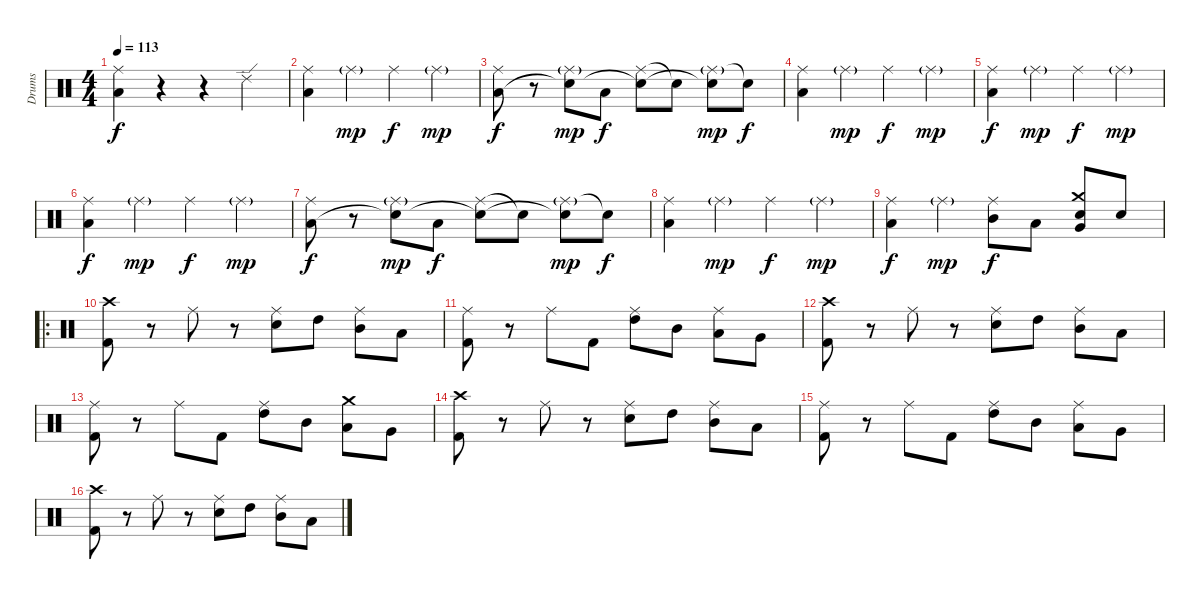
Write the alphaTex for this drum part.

\track ("Drums" "Drums") {instrument percussion}
\staff {score}
\articulation defaults
\ts (4 4)
\tempo 113
\clef neutral
\ks c
("Ride (middle)" "Low Floor Tom (hit)").4{dy f} r.4 r.4 "Ride (edge) 2".4 |
("Ride (middle)" "Low Floor Tom (hit)").4 "Ride (middle)"{g}.4{dy mp} "Ride (middle)".4{dy f} "Ride (middle)"{g}.4{dy mp} |
("Ride (middle)" "Low Floor Tom (hit)").8{dy f} r.8 ("Ride (middle)"{g} "Snare (hit)"{t}).8{dy mp} "Low Floor Tom (hit)".8{dy f} ("Ride (middle)" "Snare (hit)"{t}).8 "Snare (hit)"{t}.8 ("Ride (middle)"{g} "Snare (hit)"{t}).8{dy mp} "Snare (hit)"{t}.8{dy f} |
("Ride (middle)" "Low Floor Tom (hit)").4 "Ride (middle)"{g}.4{dy mp} "Ride (middle)".4{dy f} "Ride (middle)"{g}.4{dy mp} |
("Ride (middle)" "Low Floor Tom (hit)").4{dy f} "Ride (middle)"{g}.4{dy mp} "Ride (middle)".4{dy f} "Ride (middle)"{g}.4{dy mp} |
("Ride (middle)" "Low Floor Tom (hit)").4{dy f} "Ride (middle)"{g}.4{dy mp} "Ride (middle)".4{dy f} "Ride (middle)"{g}.4{dy mp} |
("Ride (middle)" "Low Floor Tom (hit)").8{dy f} r.8 ("Ride (middle)"{g} "Snare (hit)"{t}).8{dy mp} "Low Floor Tom (hit)".8{dy f} ("Ride (middle)" "Snare (hit)"{t}).8 "Snare (hit)"{t}.8 ("Ride (middle)"{g} "Snare (hit)"{t}).8{dy mp} "Snare (hit)"{t}.8{dy f} |
("Ride (middle)" "Low Floor Tom (hit)").4 "Ride (middle)"{g}.4{dy mp} "Ride (middle)".4{dy f} "Ride (middle)"{g}.4{dy mp} |
("Ride (middle)" "Low Floor Tom (hit)").4{dy f} "Ride (middle)"{g}.4{dy mp} ("Ride (middle)" "Mid Tom (hit)").8{dy f} "Low Tom (hit)".8 ("Crash medium (hit)" "Snare (hit) 2" "Very Low Tom (hit)").8 "Snare (hit) 2".8 |
\ro
("Crash high (hit)" "Kick (hit) 2").8 r.8 "Ride (middle)".8 r.8 ("Ride (middle)" "Snare (hit) 2").8 "High Tom (hit)".8 ("Ride (middle)" "Mid Tom (hit)").8 "Low Tom (hit)".8 |
("Ride (middle)" "Kick (hit) 2").8 r.8 "Ride (middle)".8 "Kick (hit) 2".8 ("Ride (middle)" "High Tom (hit)").8 "Mid Tom (hit)".8 ("Ride (middle)" "Low Tom (hit)").8 "Very Low Tom (hit)".8 |
("Crash high (hit)" "Kick (hit) 2").8 r.8 "Ride (middle)".8 r.8 ("Ride (middle)" "Snare (hit) 2").8 "High Tom (hit)".8 ("Ride (middle)" "Mid Tom (hit)").8 "Low Tom (hit)".8 |
("Ride (middle)" "Kick (hit) 2").8 r.8 "Ride (middle)".8 "Kick (hit) 2".8 ("Ride (middle)" "High Tom (hit)").8 "Mid Tom (hit)".8 ("Crash medium (hit)" "Low Tom (hit)").8 "Very Low Tom (hit)".8 |
("Crash high (hit)" "Kick (hit) 2").8 r.8 "Ride (middle)".8 r.8 ("Ride (middle)" "Snare (hit) 2").8 "High Tom (hit)".8 ("Ride (middle)" "Mid Tom (hit)").8 "Low Tom (hit)".8 |
("Ride (middle)" "Kick (hit) 2").8 r.8 "Ride (middle)".8 "Kick (hit) 2".8 ("Ride (middle)" "High Tom (hit)").8 "Mid Tom (hit)".8 ("Ride (middle)" "Low Tom (hit)").8 "Very Low Tom (hit)".8 |
("Crash high (hit)" "Kick (hit) 2").8 r.8 "Ride (middle)".8 r.8 ("Ride (middle)" "Snare (hit) 2").8 "High Tom (hit)".8 ("Ride (middle)" "Mid Tom (hit)").8 "Low Tom (hit)".8
